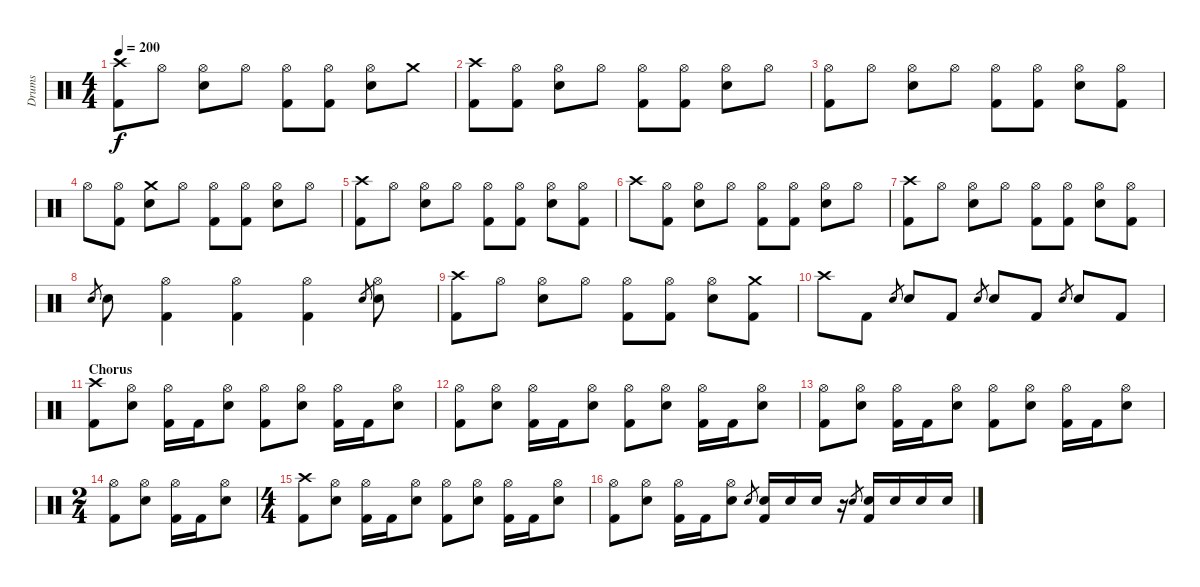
\track ("Drums" "Drums") {instrument percussion}
\staff {score}
\articulation defaults
\ts (4 4)
\tempo 200
\clef neutral
\ks c
("Crash high (hit)" "Kick (hit) 2").8{dy f} "Hi-Hat (open)".8 ("Hi-Hat (open)" "Electric Snare (hit)").8 "Hi-Hat (open)".8 ("Hi-Hat (open)" "Kick (hit) 2").8 ("Hi-Hat (open)" "Kick (hit) 2").8 ("Hi-Hat (open)" "Electric Snare (hit)").8 "Crash medium (hit)".8 |
("Crash high (hit)" "Kick (hit) 2").8 ("Hi-Hat (open)" "Kick (hit) 2").8 ("Hi-Hat (open)" "Electric Snare (hit)").8 "Hi-Hat (open)".8 ("Hi-Hat (open)" "Kick (hit) 2").8 ("Hi-Hat (open)" "Kick (hit) 2").8 ("Hi-Hat (open)" "Electric Snare (hit)").8 "Hi-Hat (open)".8 |
("Hi-Hat (open)" "Kick (hit) 2").8 "Hi-Hat (open)".8 ("Hi-Hat (open)" "Electric Snare (hit)").8 "Hi-Hat (open)".8 ("Hi-Hat (open)" "Kick (hit) 2").8 ("Hi-Hat (open)" "Kick (hit) 2").8 ("Hi-Hat (open)" "Electric Snare (hit)").8 ("Hi-Hat (open)" "Kick (hit) 2").8 |
"Hi-Hat (open)".8 ("Hi-Hat (open)" "Kick (hit) 2").8 ("Crash medium (hit)" "Electric Snare (hit)").8 "Hi-Hat (open)".8 ("Hi-Hat (open)" "Kick (hit) 2").8 ("Hi-Hat (open)" "Kick (hit) 2").8 ("Hi-Hat (open)" "Electric Snare (hit)").8 "Hi-Hat (open)".8 |
("Crash high (hit)" "Kick (hit) 2").8 "Hi-Hat (open)".8 ("Hi-Hat (open)" "Electric Snare (hit)").8 "Hi-Hat (open)".8 ("Hi-Hat (open)" "Kick (hit) 2").8 ("Hi-Hat (open)" "Kick (hit) 2").8 ("Hi-Hat (open)" "Electric Snare (hit)").8 ("Hi-Hat (open)" "Kick (hit) 2").8 |
"Crash high (hit)".8 ("Hi-Hat (open)" "Kick (hit) 2").8 ("Hi-Hat (open)" "Electric Snare (hit)").8 "Hi-Hat (open)".8 ("Hi-Hat (open)" "Kick (hit) 2").8 ("Hi-Hat (open)" "Kick (hit) 2").8 ("Hi-Hat (open)" "Electric Snare (hit)").8 "Hi-Hat (open)".8 |
("Crash high (hit)" "Kick (hit) 2").8 "Hi-Hat (open)".8 ("Hi-Hat (open)" "Electric Snare (hit)").8 "Hi-Hat (open)".8 ("Hi-Hat (open)" "Kick (hit) 2").8 ("Hi-Hat (open)" "Kick (hit) 2").8 ("Hi-Hat (open)" "Electric Snare (hit)").8 ("Hi-Hat (open)" "Kick (hit) 2").8 |
"Electric Snare (hit)".8{gr} "Electric Snare (hit)".8 ("Hi-Hat (open)" "Kick (hit) 2").4 ("Hi-Hat (open)" "Kick (hit) 2").4 ("Hi-Hat (open)" "Kick (hit) 2").4 "Electric Snare (hit)".8{gr} ("Hi-Hat (open)" "Electric Snare (hit)").8 |
("Crash high (hit)" "Kick (hit) 2").8 "Hi-Hat (open)".8 ("Hi-Hat (open)" "Electric Snare (hit)").8 "Hi-Hat (open)".8 ("Hi-Hat (open)" "Kick (hit) 2").8 ("Hi-Hat (open)" "Kick (hit) 2").8 ("Hi-Hat (open)" "Electric Snare (hit)").8 ("Crash medium (hit)" "Kick (hit) 2").8 |
"Crash high (hit)".8 "Kick (hit) 2".8 "Electric Snare (hit)".8{gr} "Electric Snare (hit)".8 "Kick (hit) 2".8 "Electric Snare (hit)".8{gr} "Electric Snare (hit)".8 "Kick (hit) 2".8 "Electric Snare (hit)".8{gr} "Electric Snare (hit)".8 "Kick (hit) 2".8 |
\section ("" "Chorus")
("Crash high (hit)" "Kick (hit) 2").8 ("Hi-Hat (open)" "Electric Snare (hit)").8 ("Hi-Hat (open)" "Kick (hit) 2").16 "Kick (hit) 2".16 ("Hi-Hat (open)" "Electric Snare (hit)").8 ("Hi-Hat (open)" "Kick (hit) 2").8 ("Hi-Hat (open)" "Electric Snare (hit)").8 ("Hi-Hat (open)" "Kick (hit) 2").16 "Kick (hit) 2".16 ("Hi-Hat (open)" "Electric Snare (hit)").8 |
("Hi-Hat (open)" "Kick (hit) 2").8 ("Hi-Hat (open)" "Electric Snare (hit)").8 ("Hi-Hat (open)" "Kick (hit) 2").16 "Kick (hit) 2".16 ("Hi-Hat (open)" "Electric Snare (hit)").8 ("Hi-Hat (open)" "Kick (hit) 2").8 ("Hi-Hat (open)" "Electric Snare (hit)").8 ("Hi-Hat (open)" "Kick (hit) 2").16 "Kick (hit) 2".16 ("Hi-Hat (open)" "Electric Snare (hit)").8 |
("Hi-Hat (open)" "Kick (hit) 2").8 ("Hi-Hat (open)" "Electric Snare (hit)").8 ("Hi-Hat (open)" "Kick (hit) 2").16 "Kick (hit) 2".16 ("Hi-Hat (open)" "Electric Snare (hit)").8 ("Hi-Hat (open)" "Kick (hit) 2").8 ("Hi-Hat (open)" "Electric Snare (hit)").8 ("Hi-Hat (open)" "Kick (hit) 2").16 "Kick (hit) 2".16 ("Hi-Hat (open)" "Electric Snare (hit)").8 |
\ts (2 4)
("Hi-Hat (open)" "Kick (hit) 2").8 ("Hi-Hat (open)" "Electric Snare (hit)").8 ("Hi-Hat (open)" "Kick (hit) 2").16 "Kick (hit) 2".16 ("Hi-Hat (open)" "Electric Snare (hit)").8 |
\ts (4 4)
("Crash high (hit)" "Kick (hit) 2").8 ("Hi-Hat (open)" "Electric Snare (hit)").8 ("Hi-Hat (open)" "Kick (hit) 2").16 "Kick (hit) 2".16 ("Hi-Hat (open)" "Electric Snare (hit)").8 ("Hi-Hat (open)" "Kick (hit) 2").8 ("Hi-Hat (open)" "Electric Snare (hit)").8 ("Hi-Hat (open)" "Kick (hit) 2").16 "Kick (hit) 2".16 ("Hi-Hat (open)" "Electric Snare (hit)").8 |
("Hi-Hat (open)" "Kick (hit) 2").8 ("Hi-Hat (open)" "Electric Snare (hit)").8 ("Hi-Hat (open)" "Kick (hit) 2").16 "Kick (hit) 2".16 ("Hi-Hat (open)" "Electric Snare (hit)").8 "Electric Snare (hit)".8{gr} ("Electric Snare (hit)" "Kick (hit) 2").16 "Electric Snare (hit)".16 "Electric Snare (hit)".16 r.16 "Electric Snare (hit)".8{gr} ("Electric Snare (hit)" "Kick (hit) 2").16 "Electric Snare (hit)".16 "Electric Snare (hit)".16 "Electric Snare (hit)".16
